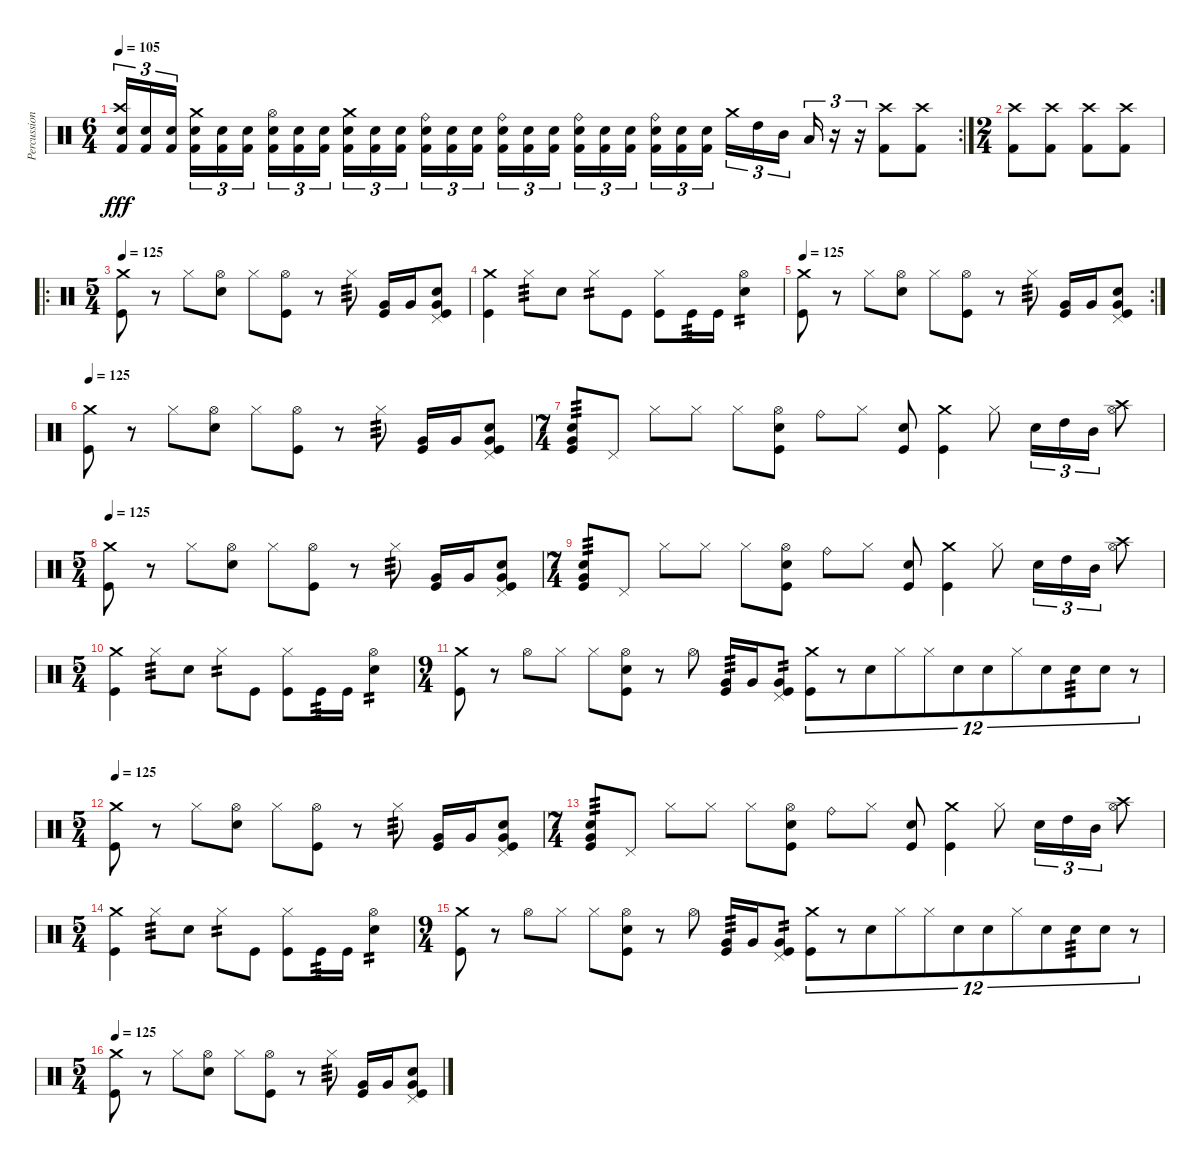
\track ("Percussion" "Percussion") {mute instrument percussion}
\staff {score}
\articulation defaults
\rc 2
\ts (6 4)
\tempo 105
\clef neutral
\ks c
("Electric Snare (hit)" "Crash high (hit)" "Kick (hit) 2").16{tu (3 2) dy fff} ("Electric Snare (hit)" "Kick (hit) 2").16{tu (3 2)} ("Electric Snare (hit)" "Kick (hit) 2").16{tu (3 2) beam splitsecondary} ("Electric Snare (hit)" "Crash medium (hit)" "Kick (hit) 2").16{tu (3 2)} ("Electric Snare (hit)" "Kick (hit) 2").16{tu (3 2)} ("Electric Snare (hit)" "Kick (hit) 2").16{tu (3 2) beam splitsecondary} ("Electric Snare (hit)" "Hi-Hat (open)" "Kick (hit) 2").16{tu (3 2)} ("Electric Snare (hit)" "Kick (hit) 2").16{tu (3 2)} ("Electric Snare (hit)" "Kick (hit) 2").16{tu (3 2) beam splitsecondary} ("Electric Snare (hit)" "Crash medium (hit)" "Kick (hit) 2").16{tu (3 2)} ("Electric Snare (hit)" "Kick (hit) 2").16{tu (3 2)} ("Electric Snare (hit)" "Kick (hit) 2").16{tu (3 2) beam splitsecondary} ("Electric Snare (hit)" "Ride (bell)" "Kick (hit) 2").16{tu (3 2)} ("Electric Snare (hit)" "Kick (hit) 2").16{tu (3 2)} ("Electric Snare (hit)" "Kick (hit) 2").16{tu (3 2) beam splitsecondary} ("Electric Snare (hit)" "Ride (bell)" "Kick (hit) 2").16{tu (3 2)} ("Electric Snare (hit)" "Kick (hit) 2").16{tu (3 2)} ("Electric Snare (hit)" "Kick (hit) 2").16{tu (3 2)} ("Electric Snare (hit)" "Ride (bell)" "Kick (hit) 2").16{tu (3 2)} ("Electric Snare (hit)" "Kick (hit) 2").16{tu (3 2)} ("Electric Snare (hit)" "Kick (hit) 2").16{tu (3 2) beam splitsecondary} ("Electric Snare (hit)" "Ride (bell)" "Kick (hit) 2").16{tu (3 2)} ("Electric Snare (hit)" "Kick (hit) 2").16{tu (3 2)} ("Electric Snare (hit)" "Kick (hit) 2").16{tu (3 2) beam splitsecondary} "Crash medium (hit)".16{tu (3 2)} "High Tom (hit)".16{tu (3 2)} "Mid Tom (hit)".16{tu (3 2) beam splitsecondary} "Low Tom (hit)".16{tu (3 2)} r.16{tu (3 2)} r.16{tu (3 2)} ("Kick (hit) 2" "Crash high (hit)").8 ("Kick (hit) 2" "Crash high (hit)").8 |
\ts (2 4)
("Kick (hit) 2" "Crash high (hit)").8 ("Kick (hit) 2" "Crash high (hit)").8 ("Kick (hit) 2" "Crash high (hit)").8 ("Kick (hit) 2" "Crash high (hit)").8 |
\ro
\ts (5 4)
\tempo 125
("Kick (hit)" "Crash medium (hit)").8 r.8 "Hi-Hat (closed)".8 ("Electric Snare (hit)" "Hi-Hat (open)").8 "Hi-Hat (closed)".8 ("Kick (hit)" "Hi-Hat (open)").8 r.8 "Hi-Hat (closed)".8{tp 3} ("Kick (hit)" "Very Low Tom (hit)").16 "Very Low Tom (hit)".16 ("Kick (hit)" "Electric Snare (hit)" "Very Low Tom (hit)" "Pedal Hi-Hat (hit)").8 |
("Kick (hit)" "Crash medium (hit)").4 "Hi-Hat (closed)".8{tp 3} "Electric Snare (hit)".8 "Hi-Hat (closed)".8{tp 2} "Kick (hit)".8 ("Kick (hit)" "Hi-Hat (closed)").8 "Kick (hit)".16{tp 3} "Kick (hit)".16 ("Electric Snare (hit)" "Hi-Hat (open)").4{tp 2} |
\rc 2
\tempo 125
("Kick (hit)" "Crash medium (hit)").8 r.8 "Hi-Hat (closed)".8 ("Electric Snare (hit)" "Hi-Hat (open)").8 "Hi-Hat (closed)".8 ("Kick (hit)" "Hi-Hat (open)").8 r.8 "Hi-Hat (closed)".8{tp 3} ("Kick (hit)" "Very Low Tom (hit)").16 "Very Low Tom (hit)".16 ("Kick (hit)" "Electric Snare (hit)" "Very Low Tom (hit)" "Pedal Hi-Hat (hit)").8 |
\tempo 125
("Kick (hit)" "Crash medium (hit)").8 r.8 "Hi-Hat (closed)".8 ("Electric Snare (hit)" "Hi-Hat (open)").8 "Hi-Hat (closed)".8 ("Kick (hit)" "Hi-Hat (open)").8 r.8 "Hi-Hat (closed)".8{tp 3} ("Kick (hit)" "Very Low Tom (hit)").16 "Very Low Tom (hit)".16 ("Kick (hit)" "Electric Snare (hit)" "Very Low Tom (hit)" "Pedal Hi-Hat (hit)").8 |
\ts (7 4)
("Kick (hit)" "Electric Snare (hit)" "Very Low Tom (hit)").8{tp 3} "Pedal Hi-Hat (hit)".8 "Hi-Hat (closed)".8 "Hi-Hat (closed)".8 "Hi-Hat (closed)".8 ("Kick (hit)" "Snare (hit) 2" "Hi-Hat (open)").8 "Ride (bell)".8 "Hi-Hat (closed)".8 ("Kick (hit)" "Snare (hit) 2").8 ("Kick (hit)" "Crash medium (hit)").4 "Hi-Hat (closed)".8 "Snare (hit) 2".16{tu (3 2)} "High Tom (hit)".16{tu (3 2)} "Mid Tom (hit)".16{tu (3 2)} ("Crash high (hit)" "Hi-Hat (open)").8 |
\ts (5 4)
\tempo 125
("Kick (hit)" "Crash medium (hit)").8 r.8 "Hi-Hat (closed)".8 ("Electric Snare (hit)" "Hi-Hat (open)").8 "Hi-Hat (closed)".8 ("Kick (hit)" "Hi-Hat (open)").8 r.8 "Hi-Hat (closed)".8{tp 3} ("Kick (hit)" "Very Low Tom (hit)").16 "Very Low Tom (hit)".16 ("Kick (hit)" "Electric Snare (hit)" "Very Low Tom (hit)" "Pedal Hi-Hat (hit)").8 |
\ts (7 4)
("Kick (hit)" "Electric Snare (hit)" "Very Low Tom (hit)").8{tp 3} "Pedal Hi-Hat (hit)".8 "Hi-Hat (closed)".8 "Hi-Hat (closed)".8 "Hi-Hat (closed)".8 ("Kick (hit)" "Snare (hit) 2" "Hi-Hat (open)").8 "Ride (bell)".8 "Hi-Hat (closed)".8 ("Kick (hit)" "Snare (hit) 2").8 ("Kick (hit)" "Crash medium (hit)").4 "Hi-Hat (closed)".8 "Snare (hit) 2".16{tu (3 2)} "High Tom (hit)".16{tu (3 2)} "Mid Tom (hit)".16{tu (3 2)} ("Crash high (hit)" "Hi-Hat (open)").8 |
\ts (5 4)
("Kick (hit)" "Crash medium (hit)").4 "Hi-Hat (closed)".8{tp 3} "Electric Snare (hit)".8 "Hi-Hat (closed)".8{tp 2} "Kick (hit)".8 ("Kick (hit)" "Hi-Hat (closed)").8 "Kick (hit)".16{tp 3} "Kick (hit)".16 ("Electric Snare (hit)" "Hi-Hat (open)").4{tp 2} |
\ts (9 4)
("Kick (hit)" "Crash medium (hit)").8 r.8 "Hi-Hat (open)".8 "Hi-Hat (closed)".8 "Hi-Hat (closed)".8 ("Kick (hit)" "Snare (hit) 2" "Hi-Hat (open)").8 r.8 "Hi-Hat (open)".8 ("Kick (hit)" "Very Low Tom (hit)").16{tp 3} "Very Low Tom (hit)".16 ("Kick (hit)" "Very Low Tom (hit)" "Pedal Hi-Hat (hit)").8{tp 2} ("Kick (hit)" "Crash medium (hit)").8{tu (12 8)} r.8{tu (12 8)} "Snare (hit) 2".8{tu (12 8)} "Hi-Hat (closed)".8{tu (12 8)} "Hi-Hat (closed)".8{tu (12 8)} "Snare (hit) 2".8{tu (12 8)} "Snare (hit) 2".8{tu (12 8)} "Hi-Hat (closed)".8{tu (12 8)} "Snare (hit) 2".8{tu (12 8)} "Snare (hit) 2".8{tu (12 8) tp 3} "Snare (hit) 2".8{tu (12 8)} r.8{tu (12 8)} |
\ts (5 4)
\tempo 125
("Kick (hit)" "Crash medium (hit)").8 r.8 "Hi-Hat (closed)".8 ("Electric Snare (hit)" "Hi-Hat (open)").8 "Hi-Hat (closed)".8 ("Kick (hit)" "Hi-Hat (open)").8 r.8 "Hi-Hat (closed)".8{tp 3} ("Kick (hit)" "Very Low Tom (hit)").16 "Very Low Tom (hit)".16 ("Kick (hit)" "Electric Snare (hit)" "Very Low Tom (hit)" "Pedal Hi-Hat (hit)").8 |
\ts (7 4)
("Kick (hit)" "Electric Snare (hit)" "Very Low Tom (hit)").8{tp 3} "Pedal Hi-Hat (hit)".8 "Hi-Hat (closed)".8 "Hi-Hat (closed)".8 "Hi-Hat (closed)".8 ("Kick (hit)" "Snare (hit) 2" "Hi-Hat (open)").8 "Ride (bell)".8 "Hi-Hat (closed)".8 ("Kick (hit)" "Snare (hit) 2").8 ("Kick (hit)" "Crash medium (hit)").4 "Hi-Hat (closed)".8 "Snare (hit) 2".16{tu (3 2)} "High Tom (hit)".16{tu (3 2)} "Mid Tom (hit)".16{tu (3 2)} ("Crash high (hit)" "Hi-Hat (open)").8 |
\ts (5 4)
("Kick (hit)" "Crash medium (hit)").4 "Hi-Hat (closed)".8{tp 3} "Electric Snare (hit)".8 "Hi-Hat (closed)".8{tp 2} "Kick (hit)".8 ("Kick (hit)" "Hi-Hat (closed)").8 "Kick (hit)".16{tp 3} "Kick (hit)".16 ("Electric Snare (hit)" "Hi-Hat (open)").4{tp 2} |
\ts (9 4)
("Kick (hit)" "Crash medium (hit)").8 r.8 "Hi-Hat (open)".8 "Hi-Hat (closed)".8 "Hi-Hat (closed)".8 ("Kick (hit)" "Snare (hit) 2" "Hi-Hat (open)").8 r.8 "Hi-Hat (open)".8 ("Kick (hit)" "Very Low Tom (hit)").16{tp 3} "Very Low Tom (hit)".16 ("Kick (hit)" "Very Low Tom (hit)" "Pedal Hi-Hat (hit)").8{tp 2} ("Kick (hit)" "Crash medium (hit)").8{tu (12 8)} r.8{tu (12 8)} "Snare (hit) 2".8{tu (12 8)} "Hi-Hat (closed)".8{tu (12 8)} "Hi-Hat (closed)".8{tu (12 8)} "Snare (hit) 2".8{tu (12 8)} "Snare (hit) 2".8{tu (12 8)} "Hi-Hat (closed)".8{tu (12 8)} "Snare (hit) 2".8{tu (12 8)} "Snare (hit) 2".8{tu (12 8) tp 3} "Snare (hit) 2".8{tu (12 8)} r.8{tu (12 8)} |
\ts (5 4)
\tempo 125
("Kick (hit)" "Crash medium (hit)").8 r.8 "Hi-Hat (closed)".8 ("Electric Snare (hit)" "Hi-Hat (open)").8 "Hi-Hat (closed)".8 ("Kick (hit)" "Hi-Hat (open)").8 r.8 "Hi-Hat (closed)".8{tp 3} ("Kick (hit)" "Very Low Tom (hit)").16 "Very Low Tom (hit)".16 ("Kick (hit)" "Electric Snare (hit)" "Very Low Tom (hit)" "Pedal Hi-Hat (hit)").8
